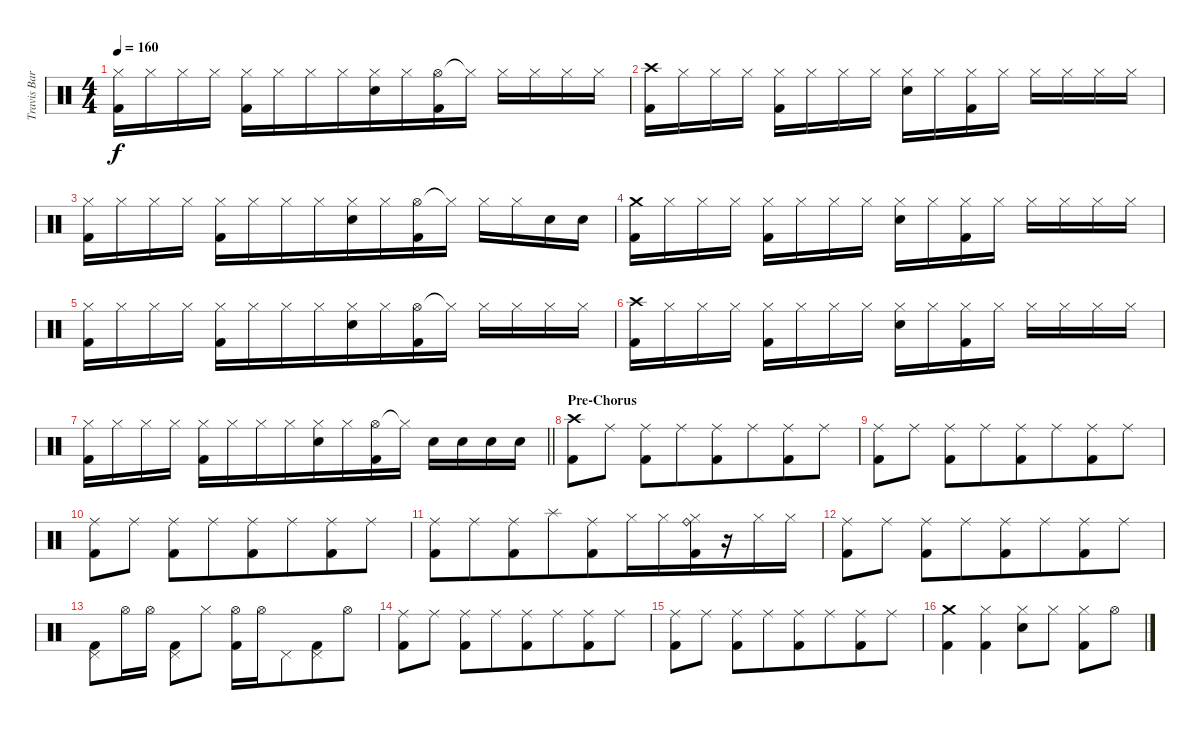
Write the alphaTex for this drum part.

\track ("Travis Barker - Drums" "Travis Bar") {instrument percussion}
\staff {score}
\articulation defaults
\ts (4 4)
\tempo 160
\clef neutral
\ks c
("Hi-Hat (closed)" "Kick (hit) 2").16{dy f} "Hi-Hat (closed)".16{beam merge} "Hi-Hat (closed)".16 "Hi-Hat (closed)".16 ("Hi-Hat (closed)" "Kick (hit) 2").16 "Hi-Hat (closed)".16{beam merge} "Hi-Hat (closed)".16 "Hi-Hat (closed)".16{beam merge} ("Hi-Hat (closed)" "Electric Snare (hit)").16{beam merge} "Hi-Hat (closed)".16 ("Hi-Hat (open)" "Kick (hit) 2").16{beam merge} "Hi-Hat (closed)"{t}.16 "Hi-Hat (closed)".16{beam merge} "Hi-Hat (closed)".16{beam merge} "Hi-Hat (closed)".16{beam merge} "Hi-Hat (closed)".16 |
("Crash high (hit)" "Kick (hit) 2").16 "Hi-Hat (closed)".16{beam merge} "Hi-Hat (closed)".16 "Hi-Hat (closed)".16 ("Hi-Hat (closed)" "Kick (hit) 2").16{beam merge} "Hi-Hat (closed)".16 "Hi-Hat (closed)".16 "Hi-Hat (closed)".16 ("Hi-Hat (closed)" "Electric Snare (hit)").16 "Hi-Hat (closed)".16 ("Hi-Hat (closed)" "Kick (hit) 2").16 "Hi-Hat (closed)".16 "Hi-Hat (closed)".16{beam merge} "Hi-Hat (closed)".16 "Hi-Hat (closed)".16 "Hi-Hat (closed)".16 |
("Hi-Hat (closed)" "Kick (hit) 2").16 "Hi-Hat (closed)".16{beam merge} "Hi-Hat (closed)".16 "Hi-Hat (closed)".16 ("Hi-Hat (closed)" "Kick (hit) 2").16 "Hi-Hat (closed)".16{beam merge} "Hi-Hat (closed)".16 "Hi-Hat (closed)".16{beam merge} ("Hi-Hat (closed)" "Electric Snare (hit)").16{beam merge} "Hi-Hat (closed)".16 ("Hi-Hat (open)" "Kick (hit) 2").16{beam merge} "Hi-Hat (closed)"{t}.16 "Hi-Hat (closed)".16{beam merge} "Hi-Hat (closed)".16 "Electric Snare (hit)".16 "Electric Snare (hit)".16 |
("Crash medium (hit)" "Kick (hit) 2").16 "Hi-Hat (closed)".16{beam merge} "Hi-Hat (closed)".16 "Hi-Hat (closed)".16 ("Hi-Hat (closed)" "Kick (hit) 2").16{beam merge} "Hi-Hat (closed)".16 "Hi-Hat (closed)".16 "Hi-Hat (closed)".16 ("Hi-Hat (closed)" "Electric Snare (hit)").16 "Hi-Hat (closed)".16 ("Hi-Hat (closed)" "Kick (hit) 2").16 "Hi-Hat (closed)".16 "Hi-Hat (closed)".16{beam merge} "Hi-Hat (closed)".16 "Hi-Hat (closed)".16 "Hi-Hat (closed)".16 |
("Hi-Hat (closed)" "Kick (hit) 2").16 "Hi-Hat (closed)".16{beam merge} "Hi-Hat (closed)".16 "Hi-Hat (closed)".16 ("Hi-Hat (closed)" "Kick (hit) 2").16 "Hi-Hat (closed)".16{beam merge} "Hi-Hat (closed)".16 "Hi-Hat (closed)".16{beam merge} ("Hi-Hat (closed)" "Electric Snare (hit)").16{beam merge} "Hi-Hat (closed)".16 ("Hi-Hat (open)" "Kick (hit) 2").16{beam merge} "Hi-Hat (closed)"{t}.16 "Hi-Hat (closed)".16{beam merge} "Hi-Hat (closed)".16{beam merge} "Hi-Hat (closed)".16{beam merge} "Hi-Hat (closed)".16 |
("Crash high (hit)" "Kick (hit) 2").16 "Hi-Hat (closed)".16{beam merge} "Hi-Hat (closed)".16 "Hi-Hat (closed)".16 ("Hi-Hat (closed)" "Kick (hit) 2").16{beam merge} "Hi-Hat (closed)".16 "Hi-Hat (closed)".16 "Hi-Hat (closed)".16 ("Hi-Hat (closed)" "Electric Snare (hit)").16 "Hi-Hat (closed)".16 ("Hi-Hat (closed)" "Kick (hit) 2").16 "Hi-Hat (closed)".16 "Hi-Hat (closed)".16{beam merge} "Hi-Hat (closed)".16 "Hi-Hat (closed)".16 "Hi-Hat (closed)".16 |
\barLineRight lightlight
("Hi-Hat (closed)" "Kick (hit) 2").16 "Hi-Hat (closed)".16{beam merge} "Hi-Hat (closed)".16 "Hi-Hat (closed)".16 ("Hi-Hat (closed)" "Kick (hit) 2").16 "Hi-Hat (closed)".16{beam merge} "Hi-Hat (closed)".16 "Hi-Hat (closed)".16{beam merge} ("Hi-Hat (closed)" "Electric Snare (hit)").16{beam merge} "Hi-Hat (closed)".16 ("Hi-Hat (open)" "Kick (hit) 2").16{beam merge} "Hi-Hat (closed)"{t}.16 "Electric Snare (hit)".16 "Electric Snare (hit)".16 "Electric Snare (hit)".16 "Electric Snare (hit)".16 |
\section ("" "Pre-Chorus")
("Crash high (hit)" "Kick (hit) 2").8{beam merge} "Ride (middle)".8 ("Ride (middle)" "Kick (hit) 2").8 "Ride (middle)".8{beam merge} ("Ride (middle)" "Kick (hit) 2").8 "Ride (middle)".8{beam merge} ("Ride (middle)" "Kick (hit) 2").8 "Ride (middle)".8 |
("Ride (middle)" "Kick (hit) 2").8{beam merge} "Ride (middle)".8 ("Ride (middle)" "Kick (hit) 2").8 "Ride (middle)".8{beam merge} ("Ride (middle)" "Kick (hit) 2").8 "Ride (middle)".8{beam merge} ("Ride (middle)" "Kick (hit) 2").8 "Ride (middle)".8 |
("Ride (middle)" "Kick (hit) 2").8{beam merge} "Ride (middle)".8 ("Ride (middle)" "Kick (hit) 2").8 "Ride (middle)".8{beam merge} ("Ride (middle)" "Kick (hit) 2").8 "Ride (middle)".8{beam merge} ("Ride (middle)" "Kick (hit) 2").8 "Ride (middle)".8 |
("Ride (middle)" "Kick (hit) 2").8 "Ride (middle)".8{beam merge} ("Ride (middle)" "Kick (hit) 2").8 "Splash (hit)".8{beam merge} ("Ride (middle)" "Kick (hit) 2").8 "Hi-Hat (closed)".16 "Hi-Hat (closed)".16{beam merge} ("Ride (bell)" "Hi-Hat (closed)" "Kick (hit) 2").16 r.16 "Hi-Hat (closed)".16 "Hi-Hat (closed)".16 |
("Ride (middle)" "Kick (hit) 2").8{beam merge} "Ride (middle)".8 ("Ride (middle)" "Kick (hit) 2").8 "Ride (middle)".8{beam merge} ("Ride (middle)" "Kick (hit) 2").8 "Ride (middle)".8{beam merge} ("Ride (middle)" "Kick (hit) 2").8 "Ride (middle)".8 |
("Pedal Hi-Hat (hit)" "Kick (hit) 2").8 "Hi-Hat (open)".16{beam merge} "Hi-Hat (open)".16 ("Pedal Hi-Hat (hit)" "Kick (hit) 2").8 "Hi-Hat (closed)".8 ("Hi-Hat (open)" "Kick (hit) 2").16 "Hi-Hat (open)".16 "Pedal Hi-Hat (hit)".8{beam merge} ("Pedal Hi-Hat (hit)" "Kick (hit) 2").8{beam merge} "Hi-Hat (open)".8 |
("Ride (middle)" "Kick (hit) 2").8{beam merge} "Ride (middle)".8 ("Ride (middle)" "Kick (hit) 2").8 "Ride (middle)".8{beam merge} ("Ride (middle)" "Kick (hit) 2").8 "Ride (middle)".8{beam merge} ("Ride (middle)" "Kick (hit) 2").8 "Ride (middle)".8 |
("Ride (middle)" "Kick (hit) 2").8{beam merge} "Ride (middle)".8 ("Ride (middle)" "Kick (hit) 2").8 "Ride (middle)".8{beam merge} ("Ride (middle)" "Kick (hit) 2").8 "Ride (middle)".8{beam merge} ("Ride (middle)" "Kick (hit) 2").8 "Ride (middle)".8 |
("Crash medium (hit)" "Kick (hit) 2").4 ("Hi-Hat (closed)" "Kick (hit) 2").4{beam merge} ("Hi-Hat (closed)" "Electric Snare (hit)").8{beam merge} "Hi-Hat (closed)".8 ("Hi-Hat (closed)" "Kick (hit) 2").8 "Hi-Hat (open)".8
